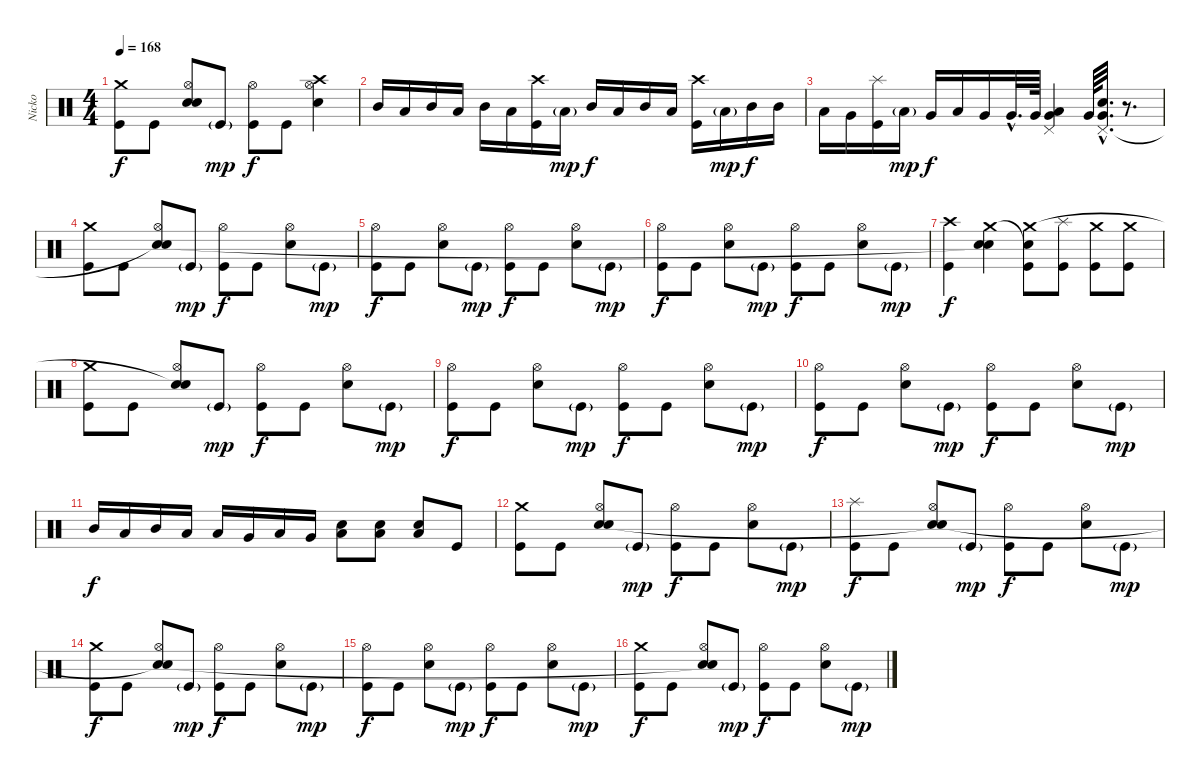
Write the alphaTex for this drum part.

\track ("Nicko" "Nicko") {instrument percussion}
\staff {score}
\articulation defaults
\ts (4 4)
\tempo 168
\clef neutral
\ks c
("Kick (hit)" "Crash medium (hit)").8{dy f} "Kick (hit)".8 ("Electric Snare (hit)" "Hi-Hat (open)" "Snare (hit)"{t}).8 "Kick (hit)"{g}.8{dy mp} ("Kick (hit)" "Hi-Hat (open)").8{dy f} "Kick (hit)".8 ("Electric Snare (hit)" "Hi-Hat (open)" "Crash high (hit)").4 |
"Mid Tom (hit)".16{volume 11} "Low Tom (hit)".16 "Mid Tom (hit)".16 "Low Tom (hit)".16 "Mid Tom (hit)".16 "Low Tom (hit)".16 ("Kick (hit)" "Crash high (hit)").16 "Low Tom (hit)"{g}.16{dy mp} "Mid Tom (hit)".16{dy f} "Low Tom (hit)".16 "Mid Tom (hit)".16 "Low Tom (hit)".16 ("Kick (hit)" "Crash high (hit)").16 "Low Tom (hit)"{g}.16{dy mp} "Mid Tom (hit)".16{dy f} "Mid Tom (hit)".16 |
"Low Tom (hit)".16 "Very Low Tom (hit)".16 ("Kick (hit)" "Splash (hit)").16 "Low Tom (hit)"{g}.16{dy mp} "Very Low Tom (hit)".16{dy f} "Low Tom (hit)".16 "Very Low Tom (hit)".16 "Very Low Tom (hit)"{hac}.32{d} "Very Low Tom (hit)".64 ("Low Tom (hit)" "Very Low Tom (hit)" "Pedal Hi-Hat (hit)").4 "Very Low Tom (hit)".64 ("Electric Snare (hit)"{hac} "Very Low Tom (hit)"{hac} "Pedal Hi-Hat (hit)"{hac}).32{d} r.8{d} |
("Kick (hit)" "Crash medium (hit)").8{volume 13} "Kick (hit)".8 ("Electric Snare (hit)" "Hi-Hat (open)" "Snare (hit)"{t}).8 "Kick (hit)"{g}.8{dy mp} ("Kick (hit)" "Hi-Hat (open)").8{dy f} "Kick (hit)".8 ("Electric Snare (hit)" "Hi-Hat (open)").8 "Kick (hit)"{g}.8{dy mp} |
("Kick (hit)" "Hi-Hat (open)").8{dy f} "Kick (hit)".8 ("Electric Snare (hit)" "Hi-Hat (open)").8 "Kick (hit)"{g}.8{dy mp} ("Kick (hit)" "Hi-Hat (open)").8{dy f} "Kick (hit)".8 ("Electric Snare (hit)" "Hi-Hat (open)").8 "Kick (hit)"{g}.8{dy mp} |
("Kick (hit)" "Hi-Hat (open)").8{dy f} "Kick (hit)".8 ("Electric Snare (hit)" "Hi-Hat (open)").8 "Kick (hit)"{g}.8{dy mp} ("Kick (hit)" "Hi-Hat (open)").8{dy f} "Kick (hit)".8 ("Electric Snare (hit)" "Hi-Hat (open)").8 "Kick (hit)"{g}.8{dy mp} |
("Kick (hit)" "Crash high (hit)").4{dy f} ("Electric Snare (hit)" "Crash medium (hit)" "Snare (hit)"{t}).4 ("Kick (hit)" "Snare (hit)"{t} "Crash medium (hit)").8{volume 11} ("Kick (hit)" "Splash (hit)").8 ("Kick (hit)" "Crash medium (hit)").8{volume 12} ("Kick (hit)" "Crash medium (hit)").8{volume 13} |
("Kick (hit)" "Crash medium (hit)").8 "Kick (hit)".8 ("Electric Snare (hit)" "Hi-Hat (open)" "Snare (hit)"{t}).8 "Kick (hit)"{g}.8{dy mp} ("Kick (hit)" "Hi-Hat (open)").8{dy f} "Kick (hit)".8 ("Electric Snare (hit)" "Hi-Hat (open)").8 "Kick (hit)"{g}.8{dy mp} |
("Kick (hit)" "Hi-Hat (open)").8{dy f} "Kick (hit)".8 ("Electric Snare (hit)" "Hi-Hat (open)").8 "Kick (hit)"{g}.8{dy mp} ("Kick (hit)" "Hi-Hat (open)").8{dy f} "Kick (hit)".8 ("Electric Snare (hit)" "Hi-Hat (open)").8 "Kick (hit)"{g}.8{dy mp} |
("Kick (hit)" "Hi-Hat (open)").8{dy f} "Kick (hit)".8 ("Electric Snare (hit)" "Hi-Hat (open)").8 "Kick (hit)"{g}.8{dy mp} ("Kick (hit)" "Hi-Hat (open)").8{dy f} "Kick (hit)".8 ("Electric Snare (hit)" "Hi-Hat (open)").8 "Kick (hit)"{g}.8{dy mp} |
"Mid Tom (hit)".16{dy f volume 12} "Low Tom (hit)".16 "Mid Tom (hit)".16 "Low Tom (hit)".16 "Low Tom (hit)".16 "Very Low Tom (hit)".16 "Low Tom (hit)".16 "Very Low Tom (hit)".16 ("Electric Snare (hit)" "Low Tom (hit)").8 ("Electric Snare (hit)" "Low Tom (hit)").8 ("Electric Snare (hit)" "Low Tom (hit)").8 "Kick (hit)".8 |
("Kick (hit)" "Crash medium (hit)").8{volume 13} "Kick (hit)".8 ("Electric Snare (hit)" "Hi-Hat (open)" "Snare (hit)").8 "Kick (hit)"{g}.8{dy mp} ("Kick (hit)" "Hi-Hat (open)").8{dy f} "Kick (hit)".8 ("Electric Snare (hit)" "Hi-Hat (open)").8 "Kick (hit)"{g}.8{dy mp} |
("Kick (hit)" "Splash (hit)").8{dy f} "Kick (hit)".8 ("Electric Snare (hit)" "Hi-Hat (open)" "Snare (hit)"{t}).8 "Kick (hit)"{g}.8{dy mp} ("Kick (hit)" "Hi-Hat (open)").8{dy f} "Kick (hit)".8 ("Electric Snare (hit)" "Hi-Hat (open)").8 "Kick (hit)"{g}.8{dy mp} |
("Kick (hit)" "Crash medium (hit)").8{dy f} "Kick (hit)".8 ("Electric Snare (hit)" "Hi-Hat (open)" "Snare (hit)"{t}).8 "Kick (hit)"{g}.8{dy mp} ("Kick (hit)" "Hi-Hat (open)").8{dy f} "Kick (hit)".8 ("Electric Snare (hit)" "Hi-Hat (open)").8 "Kick (hit)"{g}.8{dy mp} |
("Kick (hit)" "Hi-Hat (open)").8{dy f} "Kick (hit)".8 ("Electric Snare (hit)" "Hi-Hat (open)").8 "Kick (hit)"{g}.8{dy mp} ("Kick (hit)" "Hi-Hat (open)").8{dy f} "Kick (hit)".8 ("Electric Snare (hit)" "Hi-Hat (open)").8 "Kick (hit)"{g}.8{dy mp} |
("Kick (hit)" "Crash medium (hit)").8{dy f} "Kick (hit)".8 ("Electric Snare (hit)" "Hi-Hat (open)" "Snare (hit)"{t}).8 "Kick (hit)"{g}.8{dy mp} ("Kick (hit)" "Hi-Hat (open)").8{dy f} "Kick (hit)".8 ("Electric Snare (hit)" "Hi-Hat (open)").8 "Kick (hit)"{g}.8{dy mp}
